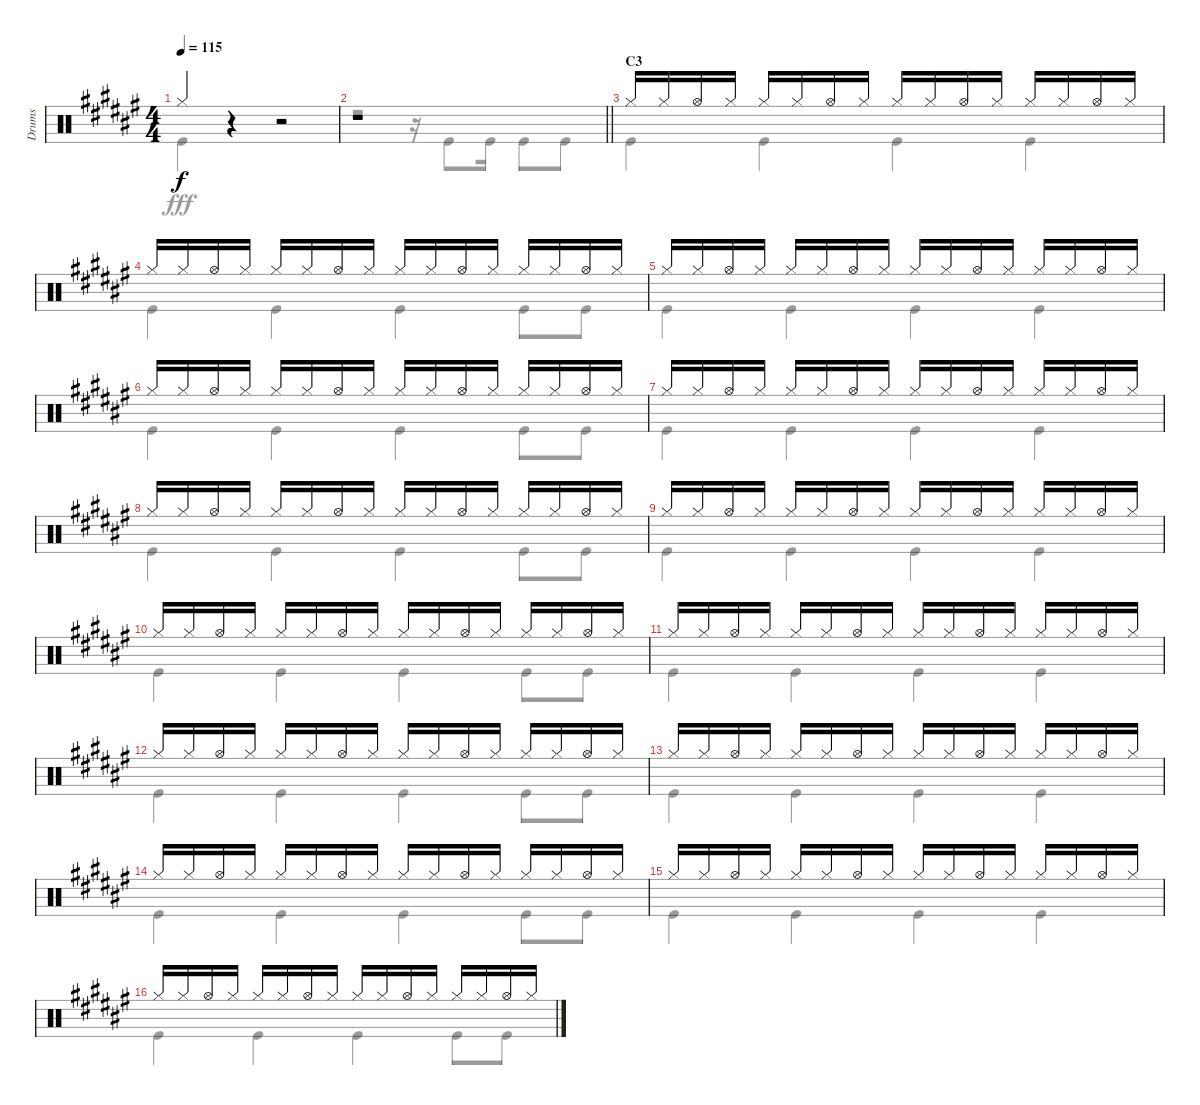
\track ("Drums" "Drums") {instrument percussion}
\staff {score}
\articulation defaults
\voice
\ts (4 4)
\tempo 115
\clef neutral
\ks f# "Hi-Hat (closed)".4{dy f}
r.4 r.2 |
\barLineRight lightlight
r.1 |
\section ("" "C3")
"Hi-Hat (closed)".16 "Hi-Hat (closed)".16 "Hi-Hat (open)".16 "Hi-Hat (closed)".16 "Hi-Hat (closed)".16 "Hi-Hat (closed)".16 "Hi-Hat (open)".16 "Hi-Hat (closed)".16 "Hi-Hat (closed)".16 "Hi-Hat (closed)".16 "Hi-Hat (open)".16 "Hi-Hat (closed)".16 "Hi-Hat (closed)".16 "Hi-Hat (closed)".16 "Hi-Hat (open)".16 "Hi-Hat (closed)".16 |
"Hi-Hat (closed)".16 "Hi-Hat (closed)".16 "Hi-Hat (open)".16 "Hi-Hat (closed)".16 "Hi-Hat (closed)".16 "Hi-Hat (closed)".16 "Hi-Hat (open)".16 "Hi-Hat (closed)".16 "Hi-Hat (closed)".16 "Hi-Hat (closed)".16 "Hi-Hat (open)".16 "Hi-Hat (closed)".16 "Hi-Hat (closed)".16 "Hi-Hat (closed)".16 "Hi-Hat (open)".16 "Hi-Hat (closed)".16 |
"Hi-Hat (closed)".16 "Hi-Hat (closed)".16 "Hi-Hat (open)".16 "Hi-Hat (closed)".16 "Hi-Hat (closed)".16 "Hi-Hat (closed)".16 "Hi-Hat (open)".16 "Hi-Hat (closed)".16 "Hi-Hat (closed)".16 "Hi-Hat (closed)".16 "Hi-Hat (open)".16 "Hi-Hat (closed)".16 "Hi-Hat (closed)".16 "Hi-Hat (closed)".16 "Hi-Hat (open)".16 "Hi-Hat (closed)".16 |
"Hi-Hat (closed)".16 "Hi-Hat (closed)".16 "Hi-Hat (open)".16 "Hi-Hat (closed)".16 "Hi-Hat (closed)".16 "Hi-Hat (closed)".16 "Hi-Hat (open)".16 "Hi-Hat (closed)".16 "Hi-Hat (closed)".16 "Hi-Hat (closed)".16 "Hi-Hat (open)".16 "Hi-Hat (closed)".16 "Hi-Hat (closed)".16 "Hi-Hat (closed)".16 "Hi-Hat (open)".16 "Hi-Hat (closed)".16 |
"Hi-Hat (closed)".16 "Hi-Hat (closed)".16 "Hi-Hat (open)".16 "Hi-Hat (closed)".16 "Hi-Hat (closed)".16 "Hi-Hat (closed)".16 "Hi-Hat (open)".16 "Hi-Hat (closed)".16 "Hi-Hat (closed)".16 "Hi-Hat (closed)".16 "Hi-Hat (open)".16 "Hi-Hat (closed)".16 "Hi-Hat (closed)".16 "Hi-Hat (closed)".16 "Hi-Hat (open)".16 "Hi-Hat (closed)".16 |
"Hi-Hat (closed)".16 "Hi-Hat (closed)".16 "Hi-Hat (open)".16 "Hi-Hat (closed)".16 "Hi-Hat (closed)".16 "Hi-Hat (closed)".16 "Hi-Hat (open)".16 "Hi-Hat (closed)".16 "Hi-Hat (closed)".16 "Hi-Hat (closed)".16 "Hi-Hat (open)".16 "Hi-Hat (closed)".16 "Hi-Hat (closed)".16 "Hi-Hat (closed)".16 "Hi-Hat (open)".16 "Hi-Hat (closed)".16 |
"Hi-Hat (closed)".16 "Hi-Hat (closed)".16 "Hi-Hat (open)".16 "Hi-Hat (closed)".16 "Hi-Hat (closed)".16 "Hi-Hat (closed)".16 "Hi-Hat (open)".16 "Hi-Hat (closed)".16 "Hi-Hat (closed)".16 "Hi-Hat (closed)".16 "Hi-Hat (open)".16 "Hi-Hat (closed)".16 "Hi-Hat (closed)".16 "Hi-Hat (closed)".16 "Hi-Hat (open)".16 "Hi-Hat (closed)".16 |
"Hi-Hat (closed)".16 "Hi-Hat (closed)".16 "Hi-Hat (open)".16 "Hi-Hat (closed)".16 "Hi-Hat (closed)".16 "Hi-Hat (closed)".16 "Hi-Hat (open)".16 "Hi-Hat (closed)".16 "Hi-Hat (closed)".16 "Hi-Hat (closed)".16 "Hi-Hat (open)".16 "Hi-Hat (closed)".16 "Hi-Hat (closed)".16 "Hi-Hat (closed)".16 "Hi-Hat (open)".16 "Hi-Hat (closed)".16 |
"Hi-Hat (closed)".16 "Hi-Hat (closed)".16 "Hi-Hat (open)".16 "Hi-Hat (closed)".16 "Hi-Hat (closed)".16 "Hi-Hat (closed)".16 "Hi-Hat (open)".16 "Hi-Hat (closed)".16 "Hi-Hat (closed)".16 "Hi-Hat (closed)".16 "Hi-Hat (open)".16 "Hi-Hat (closed)".16 "Hi-Hat (closed)".16 "Hi-Hat (closed)".16 "Hi-Hat (open)".16 "Hi-Hat (closed)".16 |
"Hi-Hat (closed)".16 "Hi-Hat (closed)".16 "Hi-Hat (open)".16 "Hi-Hat (closed)".16 "Hi-Hat (closed)".16 "Hi-Hat (closed)".16 "Hi-Hat (open)".16 "Hi-Hat (closed)".16 "Hi-Hat (closed)".16 "Hi-Hat (closed)".16 "Hi-Hat (open)".16 "Hi-Hat (closed)".16 "Hi-Hat (closed)".16 "Hi-Hat (closed)".16 "Hi-Hat (open)".16 "Hi-Hat (closed)".16 |
"Hi-Hat (closed)".16 "Hi-Hat (closed)".16 "Hi-Hat (open)".16 "Hi-Hat (closed)".16 "Hi-Hat (closed)".16 "Hi-Hat (closed)".16 "Hi-Hat (open)".16 "Hi-Hat (closed)".16 "Hi-Hat (closed)".16 "Hi-Hat (closed)".16 "Hi-Hat (open)".16 "Hi-Hat (closed)".16 "Hi-Hat (closed)".16 "Hi-Hat (closed)".16 "Hi-Hat (open)".16 "Hi-Hat (closed)".16 |
"Hi-Hat (closed)".16 "Hi-Hat (closed)".16 "Hi-Hat (open)".16 "Hi-Hat (closed)".16 "Hi-Hat (closed)".16 "Hi-Hat (closed)".16 "Hi-Hat (open)".16 "Hi-Hat (closed)".16 "Hi-Hat (closed)".16 "Hi-Hat (closed)".16 "Hi-Hat (open)".16 "Hi-Hat (closed)".16 "Hi-Hat (closed)".16 "Hi-Hat (closed)".16 "Hi-Hat (open)".16 "Hi-Hat (closed)".16 |
"Hi-Hat (closed)".16 "Hi-Hat (closed)".16 "Hi-Hat (open)".16 "Hi-Hat (closed)".16 "Hi-Hat (closed)".16 "Hi-Hat (closed)".16 "Hi-Hat (open)".16 "Hi-Hat (closed)".16 "Hi-Hat (closed)".16 "Hi-Hat (closed)".16 "Hi-Hat (open)".16 "Hi-Hat (closed)".16 "Hi-Hat (closed)".16 "Hi-Hat (closed)".16 "Hi-Hat (open)".16 "Hi-Hat (closed)".16 |
"Hi-Hat (closed)".16 "Hi-Hat (closed)".16 "Hi-Hat (open)".16 "Hi-Hat (closed)".16 "Hi-Hat (closed)".16 "Hi-Hat (closed)".16 "Hi-Hat (open)".16 "Hi-Hat (closed)".16 "Hi-Hat (closed)".16 "Hi-Hat (closed)".16 "Hi-Hat (open)".16 "Hi-Hat (closed)".16 "Hi-Hat (closed)".16 "Hi-Hat (closed)".16 "Hi-Hat (open)".16 "Hi-Hat (closed)".16
\voice
\clef neutral
\ottava regular
\simile none
\ks f# "Kick (hit)".4{dy fff}
r.4 r.2 |
\barLineRight lightlight
r.2 r.16 "Kick (hit)".8 "Kick (hit)".16 "Kick (hit)".8 "Kick (hit)".8 |
"Kick (hit)".4 "Kick (hit)".4 "Kick (hit)".4 "Kick (hit)".4 |
"Kick (hit)".4 "Kick (hit)".4 "Kick (hit)".4 "Kick (hit)".8 "Kick (hit)".8 |
"Kick (hit)".4 "Kick (hit)".4 "Kick (hit)".4 "Kick (hit)".4 |
"Kick (hit)".4 "Kick (hit)".4 "Kick (hit)".4 "Kick (hit)".8 "Kick (hit)".8 |
"Kick (hit)".4 "Kick (hit)".4 "Kick (hit)".4 "Kick (hit)".4 |
"Kick (hit)".4 "Kick (hit)".4 "Kick (hit)".4 "Kick (hit)".8 "Kick (hit)".8 |
"Kick (hit)".4 "Kick (hit)".4 "Kick (hit)".4 "Kick (hit)".4 |
"Kick (hit)".4 "Kick (hit)".4 "Kick (hit)".4 "Kick (hit)".8 "Kick (hit)".8 |
"Kick (hit)".4 "Kick (hit)".4 "Kick (hit)".4 "Kick (hit)".4 |
"Kick (hit)".4 "Kick (hit)".4 "Kick (hit)".4 "Kick (hit)".8 "Kick (hit)".8 |
"Kick (hit)".4 "Kick (hit)".4 "Kick (hit)".4 "Kick (hit)".4 |
"Kick (hit)".4 "Kick (hit)".4 "Kick (hit)".4 "Kick (hit)".8 "Kick (hit)".8 |
"Kick (hit)".4 "Kick (hit)".4 "Kick (hit)".4 "Kick (hit)".4 |
"Kick (hit)".4 "Kick (hit)".4 "Kick (hit)".4 "Kick (hit)".8 "Kick (hit)".8
